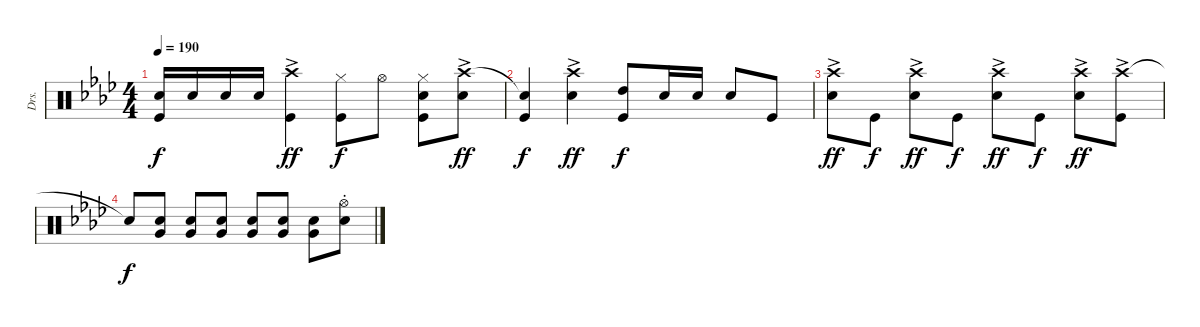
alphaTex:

\track ("Drs." "Drs.") {instrument percussion}
\staff {score}
\articulation defaults
\ts (4 4)
\tempo 190
\clef neutral
\ks ab
("Snare (hit) 2" "Kick (hit)").16{dy f} "Snare (hit) 2".16 "Snare (hit) 2".16 "Snare (hit) 2".16 ("Crash high (hit)"{ac} "Kick (hit)").4{dy ff} ("Hi-Hat (closed)" "Kick (hit)").8{dy f} "Hi-Hat (open)".8 ("Hi-Hat (closed)" "Snare (hit) 2" "Kick (hit)").8 ("Crash high (hit)"{ac} "Snare (hit) 2").8{dy ff} |
("Snare (hit)"{t} "Kick (hit)").4{dy f} ("Crash high (hit)"{ac} "Snare (hit) 2").4{dy ff} ("High Tom (hit)" "Kick (hit)").8{dy f} "Snare (hit) 2".16 "Snare (hit) 2".16 "Snare (hit) 2".8 "Kick (hit)".8 |
("Crash high (hit)"{ac} "Snare (hit) 2").8{dy ff} "Kick (hit)".8{dy f} ("Crash high (hit)"{ac} "Snare (hit) 2").8{dy ff} "Kick (hit)".8{dy f} ("Crash high (hit)"{ac} "Snare (hit) 2").8{dy ff} "Kick (hit)".8{dy f} ("Crash high (hit)"{ac} "Snare (hit) 2").8{dy ff} ("Crash high (hit)"{ac} "Kick (hit)").8 |
"Snare (hit)"{t}.8{dy f} ("Snare (hit) 2" "Very Low Tom (hit)").8 ("Snare (hit) 2" "Very Low Tom (hit)").8 ("Snare (hit) 2" "Very Low Tom (hit)").8 ("Snare (hit) 2" "Very Low Tom (hit)").8 ("Snare (hit) 2" "Very Low Tom (hit)").8 ("Snare (hit) 2" "Very Low Tom (hit)").8 ("Hi-Hat (open)"{st} "Snare (hit) 2"{st}).8
